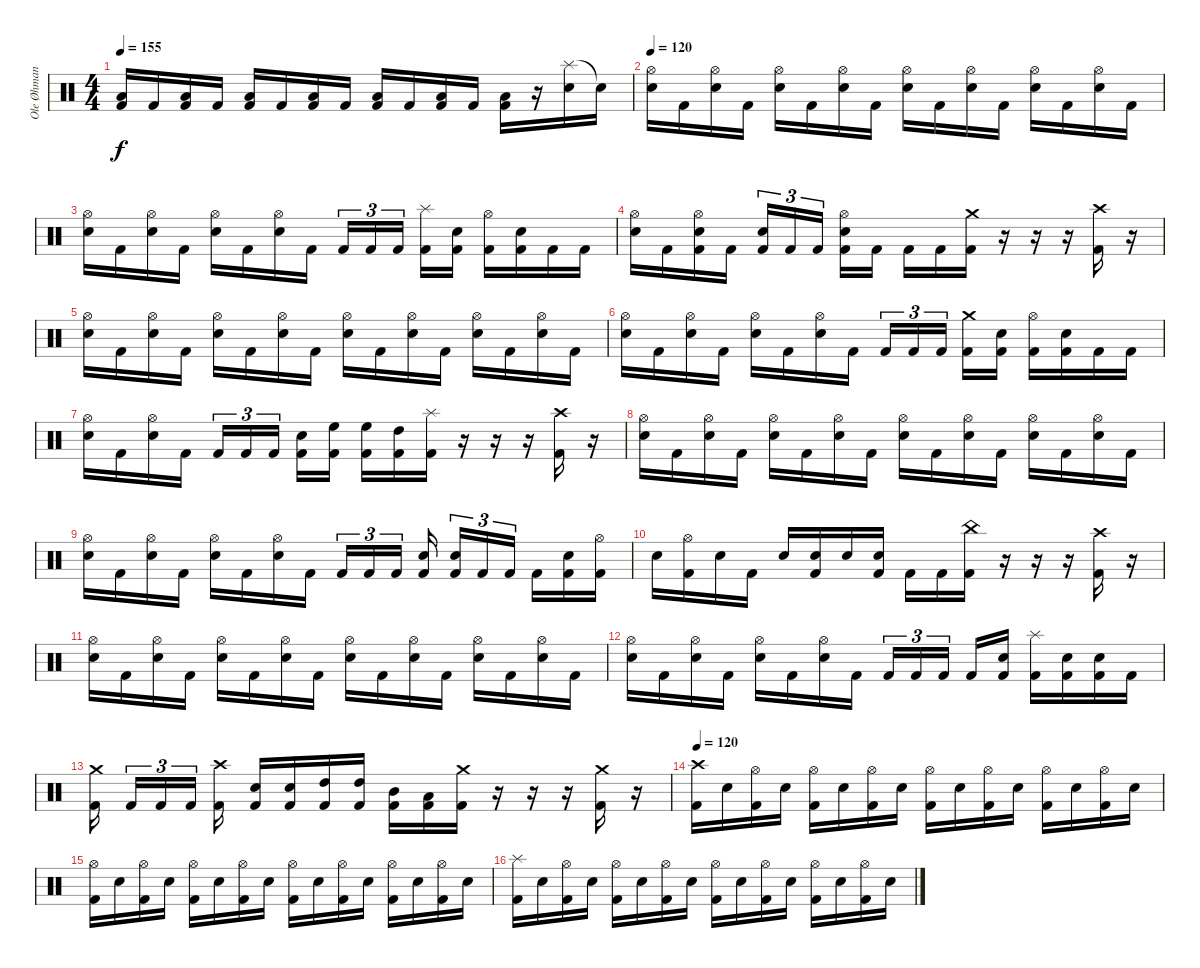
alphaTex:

\track ("Ole Øhman (Trommur)" "Ole Øhman ") {instrument percussion}
\staff {score}
\articulation defaults
\ts (4 4)
\tempo 155
\clef neutral
\ks c
("Low Tom (hit)" "Kick (hit) 2").16{dy f} "Kick (hit) 2".16 ("Low Tom (hit)" "Kick (hit) 2").16 "Kick (hit) 2".16 ("Low Tom (hit)" "Kick (hit) 2").16 "Kick (hit) 2".16 ("Low Tom (hit)" "Kick (hit) 2").16 "Kick (hit) 2".16 ("Low Tom (hit)" "Kick (hit) 2").16 "Kick (hit) 2".16 ("Low Tom (hit)" "Kick (hit) 2").16 "Kick (hit) 2".16 ("Low Tom (hit)" "Kick (hit) 2").16 r.16 ("Splash (hit)" "Electric Snare (hit)").16 "Snare (hit)"{t}.16 |
\tempo 120
("Hi-Hat (open)" "Electric Snare (hit)").16 "Kick (hit) 2".16 ("Hi-Hat (open)" "Electric Snare (hit)").16 "Kick (hit) 2".16 ("Hi-Hat (open)" "Electric Snare (hit)").16 "Kick (hit) 2".16 ("Hi-Hat (open)" "Electric Snare (hit)").16 "Kick (hit) 2".16 ("Hi-Hat (open)" "Electric Snare (hit)").16 "Kick (hit) 2".16 ("Hi-Hat (open)" "Electric Snare (hit)").16 "Kick (hit) 2".16 ("Hi-Hat (open)" "Electric Snare (hit)").16 "Kick (hit) 2".16 ("Hi-Hat (open)" "Electric Snare (hit)").16 "Kick (hit) 2".16 |
("Hi-Hat (open)" "Electric Snare (hit)").16 "Kick (hit) 2".16 ("Hi-Hat (open)" "Electric Snare (hit)").16 "Kick (hit) 2".16 ("Hi-Hat (open)" "Electric Snare (hit)").16 "Kick (hit) 2".16 ("Hi-Hat (open)" "Electric Snare (hit)").16 "Kick (hit) 2".16 "Kick (hit) 2".16{tu (3 2)} "Kick (hit) 2".16{tu (3 2)} "Kick (hit) 2".16{tu (3 2)} ("Splash (hit)" "Kick (hit) 2").16 ("Electric Snare (hit)" "Kick (hit) 2").16 ("Hi-Hat (open)" "Kick (hit) 2").16 ("Electric Snare (hit)" "Kick (hit) 2").16 "Kick (hit) 2".16 "Kick (hit) 2".16 |
("Hi-Hat (open)" "Electric Snare (hit)").16 "Kick (hit) 2".16 ("Hi-Hat (open)" "Electric Snare (hit)" "Kick (hit) 2").16 "Kick (hit) 2".16 ("Electric Snare (hit)" "Kick (hit) 2").16{tu (3 2)} "Kick (hit) 2".16{tu (3 2)} "Kick (hit) 2".16{tu (3 2)} ("Hi-Hat (open)" "Electric Snare (hit)" "Kick (hit) 2").16 "Kick (hit) 2".16 "Kick (hit) 2".16 "Kick (hit) 2".16 ("Crash medium (hit)" "Kick (hit) 2").16 r.16 r.16 r.16 ("Crash high (hit)" "Kick (hit) 2").16 r.16 |
("Hi-Hat (open)" "Electric Snare (hit)").16 "Kick (hit) 2".16 ("Hi-Hat (open)" "Electric Snare (hit)").16 "Kick (hit) 2".16 ("Hi-Hat (open)" "Electric Snare (hit)").16 "Kick (hit) 2".16 ("Hi-Hat (open)" "Electric Snare (hit)").16 "Kick (hit) 2".16 ("Hi-Hat (open)" "Electric Snare (hit)").16 "Kick (hit) 2".16 ("Hi-Hat (open)" "Electric Snare (hit)").16 "Kick (hit) 2".16 ("Hi-Hat (open)" "Electric Snare (hit)").16 "Kick (hit) 2".16 ("Hi-Hat (open)" "Electric Snare (hit)").16 "Kick (hit) 2".16 |
("Hi-Hat (open)" "Electric Snare (hit)").16 "Kick (hit) 2".16 ("Hi-Hat (open)" "Electric Snare (hit)").16 "Kick (hit) 2".16 ("Hi-Hat (open)" "Electric Snare (hit)").16 "Kick (hit) 2".16 ("Hi-Hat (open)" "Electric Snare (hit)").16 "Kick (hit) 2".16 "Kick (hit) 2".16{tu (3 2)} "Kick (hit) 2".16{tu (3 2)} "Kick (hit) 2".16{tu (3 2)} ("Crash medium (hit)" "Kick (hit) 2").16 ("Electric Snare (hit)" "Kick (hit) 2").16 ("Hi-Hat (open)" "Kick (hit) 2").16 ("Electric Snare (hit)" "Kick (hit) 2").16 "Kick (hit) 2".16 "Kick (hit) 2".16 |
("Hi-Hat (open)" "Electric Snare (hit)").16 "Kick (hit) 2".16 ("Hi-Hat (open)" "Electric Snare (hit)").16 "Kick (hit) 2".16 "Kick (hit) 2".16{tu (3 2)} "Kick (hit) 2".16{tu (3 2)} "Kick (hit) 2".16{tu (3 2)} ("Electric Snare (hit)" "Kick (hit) 2").16 ("High Floor Tom (hit)" "Kick (hit) 2").16 ("High Floor Tom (hit)" "Kick (hit) 2").16 ("High Tom (hit)" "Kick (hit) 2").16 ("Splash (hit)" "Kick (hit) 2").16 r.16 r.16 r.16 ("Crash high (hit)" "Kick (hit) 2").16 r.16 |
("Hi-Hat (open)" "Electric Snare (hit)").16 "Kick (hit) 2".16 ("Hi-Hat (open)" "Electric Snare (hit)").16 "Kick (hit) 2".16 ("Hi-Hat (open)" "Electric Snare (hit)").16 "Kick (hit) 2".16 ("Hi-Hat (open)" "Electric Snare (hit)").16 "Kick (hit) 2".16 ("Hi-Hat (open)" "Electric Snare (hit)").16 "Kick (hit) 2".16 ("Hi-Hat (open)" "Electric Snare (hit)").16 "Kick (hit) 2".16 ("Hi-Hat (open)" "Electric Snare (hit)").16 "Kick (hit) 2".16 ("Hi-Hat (open)" "Electric Snare (hit)").16 "Kick (hit) 2".16 |
("Hi-Hat (open)" "Electric Snare (hit)").16 "Kick (hit) 2".16 ("Hi-Hat (open)" "Electric Snare (hit)").16 "Kick (hit) 2".16 ("Hi-Hat (open)" "Electric Snare (hit)").16 "Kick (hit) 2".16 ("Hi-Hat (open)" "Electric Snare (hit)").16 "Kick (hit) 2".16 "Kick (hit) 2".16{tu (3 2)} "Kick (hit) 2".16{tu (3 2)} "Kick (hit) 2".16{tu (3 2)} ("Electric Snare (hit)" "Kick (hit) 2").16 ("Electric Snare (hit)" "Kick (hit) 2").16{tu (3 2)} "Kick (hit) 2".16{tu (3 2)} "Kick (hit) 2".16{tu (3 2)} "Kick (hit) 2".16 ("Electric Snare (hit)" "Kick (hit) 2").16 ("Hi-Hat (open)" "Kick (hit) 2").16 |
"Electric Snare (hit)".16 ("Hi-Hat (open)" "Kick (hit) 2").16 "Electric Snare (hit)".16 "Kick (hit) 2".16 "Electric Snare (hit)".16 ("Electric Snare (hit)" "Kick (hit) 2").16 "Electric Snare (hit)".16 ("Electric Snare (hit)" "Kick (hit) 2").16 "Kick (hit) 2".16 "Kick (hit) 2".16 ("China (hit)" "Kick (hit) 2").16 r.16 r.16 r.16 ("Crash high (hit)" "Kick (hit) 2").16 r.16 |
("Hi-Hat (open)" "Electric Snare (hit)").16 "Kick (hit) 2".16 ("Hi-Hat (open)" "Electric Snare (hit)").16 "Kick (hit) 2".16 ("Hi-Hat (open)" "Electric Snare (hit)").16 "Kick (hit) 2".16 ("Hi-Hat (open)" "Electric Snare (hit)").16 "Kick (hit) 2".16 ("Hi-Hat (open)" "Electric Snare (hit)").16 "Kick (hit) 2".16 ("Hi-Hat (open)" "Electric Snare (hit)").16 "Kick (hit) 2".16 ("Hi-Hat (open)" "Electric Snare (hit)").16 "Kick (hit) 2".16 ("Hi-Hat (open)" "Electric Snare (hit)").16 "Kick (hit) 2".16 |
("Hi-Hat (open)" "Electric Snare (hit)").16 "Kick (hit) 2".16 ("Hi-Hat (open)" "Electric Snare (hit)").16 "Kick (hit) 2".16 ("Hi-Hat (open)" "Electric Snare (hit)").16 "Kick (hit) 2".16 ("Hi-Hat (open)" "Electric Snare (hit)").16 "Kick (hit) 2".16 "Kick (hit) 2".16{tu (3 2)} "Kick (hit) 2".16{tu (3 2)} "Kick (hit) 2".16{tu (3 2)} "Kick (hit) 2".16 ("Electric Snare (hit)" "Kick (hit) 2").16 ("Splash (hit)" "Kick (hit) 2").16 ("Electric Snare (hit)" "Kick (hit) 2").16 ("Electric Snare (hit)" "Kick (hit) 2").16 "Kick (hit) 2".16 |
("Crash medium (hit)" "Kick (hit) 2").16 "Kick (hit) 2".16{tu (3 2)} "Kick (hit) 2".16{tu (3 2)} "Kick (hit) 2".16{tu (3 2)} ("Crash high (hit)" "Kick (hit) 2").16 ("Electric Snare (hit)" "Kick (hit) 2").16 ("Electric Snare (hit)" "Kick (hit) 2").16 ("High Tom (hit)" "Kick (hit) 2").16 ("High Tom (hit)" "Kick (hit) 2").16 ("Mid Tom (hit)" "Kick (hit) 2").16 ("Low Tom (hit)" "Kick (hit) 2").16 ("Crash medium (hit)" "Kick (hit) 2").16 r.16 r.16 r.16 ("Crash medium (hit)" "Kick (hit) 2").16 r.16 |
\tempo 120
("Crash high (hit)" "Kick (hit) 2").16 "Electric Snare (hit)".16 ("Hi-Hat (open)" "Kick (hit) 2").16 "Electric Snare (hit)".16 ("Hi-Hat (open)" "Kick (hit) 2").16 "Electric Snare (hit)".16 ("Hi-Hat (open)" "Kick (hit) 2").16 "Electric Snare (hit)".16 ("Hi-Hat (open)" "Kick (hit) 2").16 "Electric Snare (hit)".16 ("Hi-Hat (open)" "Kick (hit) 2").16 "Electric Snare (hit)".16 ("Hi-Hat (open)" "Kick (hit) 2").16 "Electric Snare (hit)".16 ("Hi-Hat (open)" "Kick (hit) 2").16 "Electric Snare (hit)".16 |
("Hi-Hat (open)" "Kick (hit) 2").16 "Electric Snare (hit)".16 ("Hi-Hat (open)" "Kick (hit) 2").16 "Electric Snare (hit)".16 ("Hi-Hat (open)" "Kick (hit) 2").16 "Electric Snare (hit)".16 ("Hi-Hat (open)" "Kick (hit) 2").16 "Electric Snare (hit)".16 ("Hi-Hat (open)" "Kick (hit) 2").16 "Electric Snare (hit)".16 ("Hi-Hat (open)" "Kick (hit) 2").16 "Electric Snare (hit)".16 ("Hi-Hat (open)" "Kick (hit) 2").16 "Electric Snare (hit)".16 ("Hi-Hat (open)" "Kick (hit) 2").16 "Electric Snare (hit)".16 |
("Splash (hit)" "Kick (hit) 2").16 "Electric Snare (hit)".16 ("Hi-Hat (open)" "Kick (hit) 2").16 "Electric Snare (hit)".16 ("Hi-Hat (open)" "Kick (hit) 2").16 "Electric Snare (hit)".16 ("Hi-Hat (open)" "Kick (hit) 2").16 "Electric Snare (hit)".16 ("Hi-Hat (open)" "Kick (hit) 2").16 "Electric Snare (hit)".16 ("Hi-Hat (open)" "Kick (hit) 2").16 "Electric Snare (hit)".16 ("Hi-Hat (open)" "Kick (hit) 2").16 "Electric Snare (hit)".16 ("Hi-Hat (open)" "Kick (hit) 2").16 "Electric Snare (hit)".16
